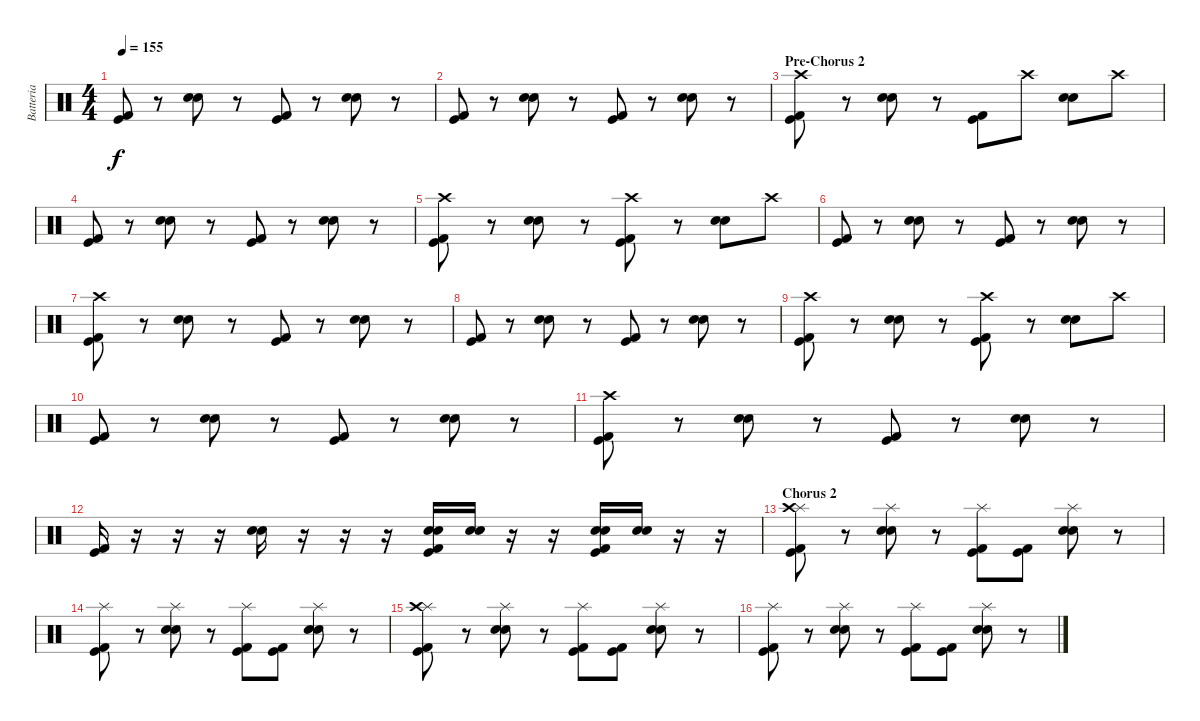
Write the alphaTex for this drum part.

\track ("Batteria" "Batteria") {instrument percussion}
\staff {score}
\articulation defaults
\ts (4 4)
\tempo 155
\clef neutral
\ks c
("Kick (hit)" "Kick (hit) 2").8{dy f} r.8 ("Electric Snare (hit)" "Snare (hit) 2").8 r.8 ("Kick (hit)" "Kick (hit) 2").8 r.8 ("Electric Snare (hit)" "Snare (hit) 2").8 r.8 |
("Kick (hit)" "Kick (hit) 2").8 r.8 ("Electric Snare (hit)" "Snare (hit) 2").8 r.8 ("Kick (hit)" "Kick (hit) 2").8 r.8 ("Electric Snare (hit)" "Snare (hit) 2").8 r.8 |
\section ("" "Pre-Chorus 2")
("Kick (hit)" "Kick (hit) 2" "Crash high (hit)").8 r.8 ("Electric Snare (hit)" "Snare (hit) 2").8 r.8 ("Kick (hit)" "Kick (hit) 2").8 "Crash high (hit)".8 ("Electric Snare (hit)" "Snare (hit) 2").8 "Crash high (hit)".8 |
("Kick (hit)" "Kick (hit) 2").8 r.8 ("Electric Snare (hit)" "Snare (hit) 2").8 r.8 ("Kick (hit)" "Kick (hit) 2").8 r.8 ("Electric Snare (hit)" "Snare (hit) 2").8 r.8 |
("Kick (hit)" "Kick (hit) 2" "Crash high (hit)").8 r.8 ("Electric Snare (hit)" "Snare (hit) 2").8 r.8 ("Kick (hit)" "Kick (hit) 2" "Crash high (hit)").8 r.8 ("Electric Snare (hit)" "Snare (hit) 2").8 "Crash high (hit)".8 |
("Kick (hit)" "Kick (hit) 2").8 r.8 ("Electric Snare (hit)" "Snare (hit) 2").8 r.8 ("Kick (hit)" "Kick (hit) 2").8 r.8 ("Electric Snare (hit)" "Snare (hit) 2").8 r.8 |
("Kick (hit)" "Kick (hit) 2" "Crash high (hit)").8 r.8 ("Electric Snare (hit)" "Snare (hit) 2").8 r.8 ("Kick (hit)" "Kick (hit) 2").8 r.8 ("Electric Snare (hit)" "Snare (hit) 2").8 r.8 |
("Kick (hit)" "Kick (hit) 2").8 r.8 ("Electric Snare (hit)" "Snare (hit) 2").8 r.8 ("Kick (hit)" "Kick (hit) 2").8 r.8 ("Electric Snare (hit)" "Snare (hit) 2").8 r.8 |
("Kick (hit)" "Kick (hit) 2" "Crash high (hit)").8 r.8 ("Electric Snare (hit)" "Snare (hit) 2").8 r.8 ("Kick (hit)" "Kick (hit) 2" "Crash high (hit)").8 r.8 ("Electric Snare (hit)" "Snare (hit) 2").8 "Crash high (hit)".8 |
("Kick (hit)" "Kick (hit) 2").8 r.8 ("Electric Snare (hit)" "Snare (hit) 2").8 r.8 ("Kick (hit)" "Kick (hit) 2").8 r.8 ("Electric Snare (hit)" "Snare (hit) 2").8 r.8 |
("Kick (hit)" "Kick (hit) 2" "Crash high (hit)").8 r.8 ("Electric Snare (hit)" "Snare (hit) 2").8 r.8 ("Kick (hit)" "Kick (hit) 2").8 r.8 ("Electric Snare (hit)" "Snare (hit) 2").8 r.8 |
("Kick (hit)" "Kick (hit) 2").16 r.16 r.16 r.16 ("Electric Snare (hit)" "Snare (hit) 2").16 r.16 r.16 r.16 ("Kick (hit)" "Kick (hit) 2" "Electric Snare (hit)" "Snare (hit) 2").16 ("Electric Snare (hit)" "Snare (hit) 2").16 r.16 r.16 ("Kick (hit)" "Kick (hit) 2" "Electric Snare (hit)" "Snare (hit) 2").16 ("Electric Snare (hit)" "Snare (hit) 2").16 r.16 r.16 |
\section ("" "Chorus 2")
("Kick (hit)" "Kick (hit) 2" "Splash (hit)" "Crash high (hit)").8 r.8 ("Electric Snare (hit)" "Snare (hit) 2" "Splash (hit)").8 r.8 ("Kick (hit)" "Kick (hit) 2" "Splash (hit)").8 ("Kick (hit)" "Kick (hit) 2").8 ("Electric Snare (hit)" "Snare (hit) 2" "Splash (hit)").8 r.8 |
("Kick (hit)" "Kick (hit) 2" "Splash (hit)").8 r.8 ("Electric Snare (hit)" "Snare (hit) 2" "Splash (hit)").8 r.8 ("Kick (hit)" "Kick (hit) 2" "Splash (hit)").8 ("Kick (hit)" "Kick (hit) 2").8 ("Electric Snare (hit)" "Snare (hit) 2" "Splash (hit)").8 r.8 |
("Kick (hit)" "Kick (hit) 2" "Splash (hit)" "Crash high (hit)").8 r.8 ("Electric Snare (hit)" "Snare (hit) 2" "Splash (hit)").8 r.8 ("Kick (hit)" "Kick (hit) 2" "Splash (hit)").8 ("Kick (hit)" "Kick (hit) 2").8 ("Electric Snare (hit)" "Snare (hit) 2" "Splash (hit)").8 r.8 |
("Kick (hit)" "Kick (hit) 2" "Splash (hit)").8 r.8 ("Electric Snare (hit)" "Snare (hit) 2" "Splash (hit)").8 r.8 ("Kick (hit)" "Kick (hit) 2" "Splash (hit)").8 ("Kick (hit)" "Kick (hit) 2").8 ("Electric Snare (hit)" "Snare (hit) 2" "Splash (hit)").8 r.8
